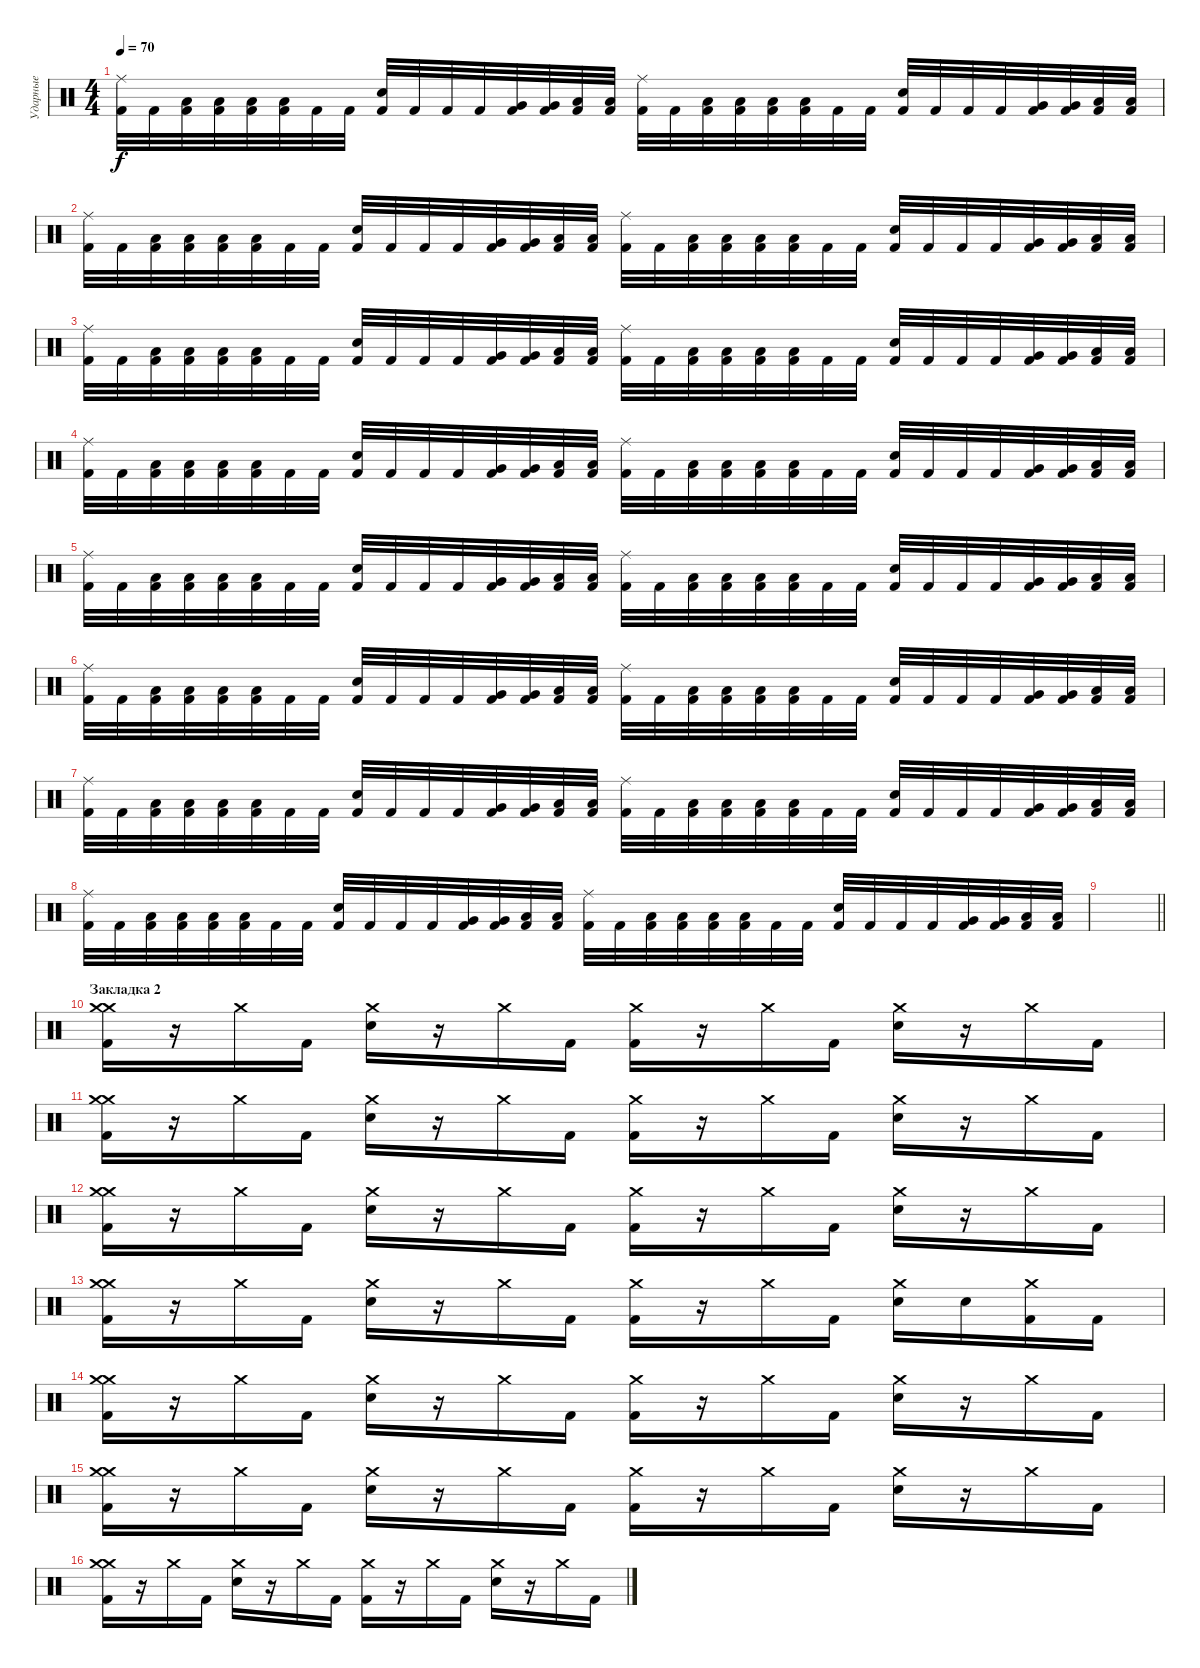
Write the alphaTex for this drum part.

\track ("Ударные" "Ударные") {instrument percussion}
\staff {score}
\articulation defaults
\ts (4 4)
\tempo 70
\clef neutral
\ks c
("Ride (middle)" "Kick (hit) 2").32{dy f} "Kick (hit) 2".32 ("Low Tom (hit)" "Kick (hit) 2").32 ("Low Tom (hit)" "Kick (hit) 2").32 ("Low Tom (hit)" "Kick (hit) 2").32 ("Low Tom (hit)" "Kick (hit) 2").32 "Kick (hit) 2".32 "Kick (hit) 2".32 ("Electric Snare (hit)" "Kick (hit) 2").32 "Kick (hit) 2".32 "Kick (hit) 2".32 "Kick (hit) 2".32 ("Very Low Tom (hit)" "Kick (hit) 2").32 ("Very Low Tom (hit)" "Kick (hit) 2").32 ("Low Floor Tom (hit)" "Kick (hit) 2").32 ("Low Floor Tom (hit)" "Kick (hit) 2").32 ("Ride (middle)" "Kick (hit) 2").32 "Kick (hit) 2".32 ("Low Tom (hit)" "Kick (hit) 2").32 ("Low Tom (hit)" "Kick (hit) 2").32 ("Low Tom (hit)" "Kick (hit) 2").32 ("Low Tom (hit)" "Kick (hit) 2").32 "Kick (hit) 2".32 "Kick (hit) 2".32 ("Electric Snare (hit)" "Kick (hit) 2").32 "Kick (hit) 2".32 "Kick (hit) 2".32 "Kick (hit) 2".32 ("Very Low Tom (hit)" "Kick (hit) 2").32 ("Very Low Tom (hit)" "Kick (hit) 2").32 ("Low Floor Tom (hit)" "Kick (hit) 2").32 ("Low Floor Tom (hit)" "Kick (hit) 2").32 |
("Ride (middle)" "Kick (hit) 2").32 "Kick (hit) 2".32 ("Low Tom (hit)" "Kick (hit) 2").32 ("Low Tom (hit)" "Kick (hit) 2").32 ("Low Tom (hit)" "Kick (hit) 2").32 ("Low Tom (hit)" "Kick (hit) 2").32 "Kick (hit) 2".32 "Kick (hit) 2".32 ("Electric Snare (hit)" "Kick (hit) 2").32 "Kick (hit) 2".32 "Kick (hit) 2".32 "Kick (hit) 2".32 ("Very Low Tom (hit)" "Kick (hit) 2").32 ("Very Low Tom (hit)" "Kick (hit) 2").32 ("Low Floor Tom (hit)" "Kick (hit) 2").32 ("Low Floor Tom (hit)" "Kick (hit) 2").32 ("Ride (middle)" "Kick (hit) 2").32 "Kick (hit) 2".32 ("Low Tom (hit)" "Kick (hit) 2").32 ("Low Tom (hit)" "Kick (hit) 2").32 ("Low Tom (hit)" "Kick (hit) 2").32 ("Low Tom (hit)" "Kick (hit) 2").32 "Kick (hit) 2".32 "Kick (hit) 2".32 ("Electric Snare (hit)" "Kick (hit) 2").32 "Kick (hit) 2".32 "Kick (hit) 2".32 "Kick (hit) 2".32 ("Very Low Tom (hit)" "Kick (hit) 2").32 ("Very Low Tom (hit)" "Kick (hit) 2").32 ("Low Floor Tom (hit)" "Kick (hit) 2").32 ("Low Floor Tom (hit)" "Kick (hit) 2").32 |
("Ride (middle)" "Kick (hit) 2").32 "Kick (hit) 2".32 ("Low Tom (hit)" "Kick (hit) 2").32 ("Low Tom (hit)" "Kick (hit) 2").32 ("Low Tom (hit)" "Kick (hit) 2").32 ("Low Tom (hit)" "Kick (hit) 2").32 "Kick (hit) 2".32 "Kick (hit) 2".32 ("Electric Snare (hit)" "Kick (hit) 2").32 "Kick (hit) 2".32 "Kick (hit) 2".32 "Kick (hit) 2".32 ("Very Low Tom (hit)" "Kick (hit) 2").32 ("Very Low Tom (hit)" "Kick (hit) 2").32 ("Low Floor Tom (hit)" "Kick (hit) 2").32 ("Low Floor Tom (hit)" "Kick (hit) 2").32 ("Ride (middle)" "Kick (hit) 2").32 "Kick (hit) 2".32 ("Low Tom (hit)" "Kick (hit) 2").32 ("Low Tom (hit)" "Kick (hit) 2").32 ("Low Tom (hit)" "Kick (hit) 2").32 ("Low Tom (hit)" "Kick (hit) 2").32 "Kick (hit) 2".32 "Kick (hit) 2".32 ("Electric Snare (hit)" "Kick (hit) 2").32 "Kick (hit) 2".32 "Kick (hit) 2".32 "Kick (hit) 2".32 ("Very Low Tom (hit)" "Kick (hit) 2").32 ("Very Low Tom (hit)" "Kick (hit) 2").32 ("Low Floor Tom (hit)" "Kick (hit) 2").32 ("Low Floor Tom (hit)" "Kick (hit) 2").32 |
("Ride (middle)" "Kick (hit) 2").32 "Kick (hit) 2".32 ("Low Tom (hit)" "Kick (hit) 2").32 ("Low Tom (hit)" "Kick (hit) 2").32 ("Low Tom (hit)" "Kick (hit) 2").32 ("Low Tom (hit)" "Kick (hit) 2").32 "Kick (hit) 2".32 "Kick (hit) 2".32 ("Electric Snare (hit)" "Kick (hit) 2").32 "Kick (hit) 2".32 "Kick (hit) 2".32 "Kick (hit) 2".32 ("Very Low Tom (hit)" "Kick (hit) 2").32 ("Very Low Tom (hit)" "Kick (hit) 2").32 ("Low Floor Tom (hit)" "Kick (hit) 2").32 ("Low Floor Tom (hit)" "Kick (hit) 2").32 ("Ride (middle)" "Kick (hit) 2").32 "Kick (hit) 2".32 ("Low Tom (hit)" "Kick (hit) 2").32 ("Low Tom (hit)" "Kick (hit) 2").32 ("Low Tom (hit)" "Kick (hit) 2").32 ("Low Tom (hit)" "Kick (hit) 2").32 "Kick (hit) 2".32 "Kick (hit) 2".32 ("Electric Snare (hit)" "Kick (hit) 2").32 "Kick (hit) 2".32 "Kick (hit) 2".32 "Kick (hit) 2".32 ("Very Low Tom (hit)" "Kick (hit) 2").32 ("Very Low Tom (hit)" "Kick (hit) 2").32 ("Low Floor Tom (hit)" "Kick (hit) 2").32 ("Low Floor Tom (hit)" "Kick (hit) 2").32 |
("Ride (middle)" "Kick (hit) 2").32 "Kick (hit) 2".32 ("Low Tom (hit)" "Kick (hit) 2").32 ("Low Tom (hit)" "Kick (hit) 2").32 ("Low Tom (hit)" "Kick (hit) 2").32 ("Low Tom (hit)" "Kick (hit) 2").32 "Kick (hit) 2".32 "Kick (hit) 2".32 ("Electric Snare (hit)" "Kick (hit) 2").32 "Kick (hit) 2".32 "Kick (hit) 2".32 "Kick (hit) 2".32 ("Very Low Tom (hit)" "Kick (hit) 2").32 ("Very Low Tom (hit)" "Kick (hit) 2").32 ("Low Floor Tom (hit)" "Kick (hit) 2").32 ("Low Floor Tom (hit)" "Kick (hit) 2").32 ("Ride (middle)" "Kick (hit) 2").32 "Kick (hit) 2".32 ("Low Tom (hit)" "Kick (hit) 2").32 ("Low Tom (hit)" "Kick (hit) 2").32 ("Low Tom (hit)" "Kick (hit) 2").32 ("Low Tom (hit)" "Kick (hit) 2").32 "Kick (hit) 2".32 "Kick (hit) 2".32 ("Electric Snare (hit)" "Kick (hit) 2").32 "Kick (hit) 2".32 "Kick (hit) 2".32 "Kick (hit) 2".32 ("Very Low Tom (hit)" "Kick (hit) 2").32 ("Very Low Tom (hit)" "Kick (hit) 2").32 ("Low Floor Tom (hit)" "Kick (hit) 2").32 ("Low Floor Tom (hit)" "Kick (hit) 2").32 |
("Ride (middle)" "Kick (hit) 2").32 "Kick (hit) 2".32 ("Low Tom (hit)" "Kick (hit) 2").32 ("Low Tom (hit)" "Kick (hit) 2").32 ("Low Tom (hit)" "Kick (hit) 2").32 ("Low Tom (hit)" "Kick (hit) 2").32 "Kick (hit) 2".32 "Kick (hit) 2".32 ("Electric Snare (hit)" "Kick (hit) 2").32 "Kick (hit) 2".32 "Kick (hit) 2".32 "Kick (hit) 2".32 ("Very Low Tom (hit)" "Kick (hit) 2").32 ("Very Low Tom (hit)" "Kick (hit) 2").32 ("Low Floor Tom (hit)" "Kick (hit) 2").32 ("Low Floor Tom (hit)" "Kick (hit) 2").32 ("Ride (middle)" "Kick (hit) 2").32 "Kick (hit) 2".32 ("Low Tom (hit)" "Kick (hit) 2").32 ("Low Tom (hit)" "Kick (hit) 2").32 ("Low Tom (hit)" "Kick (hit) 2").32 ("Low Tom (hit)" "Kick (hit) 2").32 "Kick (hit) 2".32 "Kick (hit) 2".32 ("Electric Snare (hit)" "Kick (hit) 2").32 "Kick (hit) 2".32 "Kick (hit) 2".32 "Kick (hit) 2".32 ("Very Low Tom (hit)" "Kick (hit) 2").32 ("Very Low Tom (hit)" "Kick (hit) 2").32 ("Low Floor Tom (hit)" "Kick (hit) 2").32 ("Low Floor Tom (hit)" "Kick (hit) 2").32 |
("Ride (middle)" "Kick (hit) 2").32 "Kick (hit) 2".32 ("Low Tom (hit)" "Kick (hit) 2").32 ("Low Tom (hit)" "Kick (hit) 2").32 ("Low Tom (hit)" "Kick (hit) 2").32 ("Low Tom (hit)" "Kick (hit) 2").32 "Kick (hit) 2".32 "Kick (hit) 2".32 ("Electric Snare (hit)" "Kick (hit) 2").32 "Kick (hit) 2".32 "Kick (hit) 2".32 "Kick (hit) 2".32 ("Very Low Tom (hit)" "Kick (hit) 2").32 ("Very Low Tom (hit)" "Kick (hit) 2").32 ("Low Floor Tom (hit)" "Kick (hit) 2").32 ("Low Floor Tom (hit)" "Kick (hit) 2").32 ("Ride (middle)" "Kick (hit) 2").32 "Kick (hit) 2".32 ("Low Tom (hit)" "Kick (hit) 2").32 ("Low Tom (hit)" "Kick (hit) 2").32 ("Low Tom (hit)" "Kick (hit) 2").32 ("Low Tom (hit)" "Kick (hit) 2").32 "Kick (hit) 2".32 "Kick (hit) 2".32 ("Electric Snare (hit)" "Kick (hit) 2").32 "Kick (hit) 2".32 "Kick (hit) 2".32 "Kick (hit) 2".32 ("Very Low Tom (hit)" "Kick (hit) 2").32 ("Very Low Tom (hit)" "Kick (hit) 2").32 ("Low Floor Tom (hit)" "Kick (hit) 2").32 ("Low Floor Tom (hit)" "Kick (hit) 2").32 |
("Ride (middle)" "Kick (hit) 2").32 "Kick (hit) 2".32 ("Low Tom (hit)" "Kick (hit) 2").32 ("Low Tom (hit)" "Kick (hit) 2").32 ("Low Tom (hit)" "Kick (hit) 2").32 ("Low Tom (hit)" "Kick (hit) 2").32 "Kick (hit) 2".32 "Kick (hit) 2".32 ("Electric Snare (hit)" "Kick (hit) 2").32 "Kick (hit) 2".32 "Kick (hit) 2".32 "Kick (hit) 2".32 ("Very Low Tom (hit)" "Kick (hit) 2").32 ("Very Low Tom (hit)" "Kick (hit) 2").32 ("Low Floor Tom (hit)" "Kick (hit) 2").32 ("Low Floor Tom (hit)" "Kick (hit) 2").32 ("Ride (middle)" "Kick (hit) 2").32 "Kick (hit) 2".32 ("Low Tom (hit)" "Kick (hit) 2").32 ("Low Tom (hit)" "Kick (hit) 2").32 ("Low Tom (hit)" "Kick (hit) 2").32 ("Low Tom (hit)" "Kick (hit) 2").32 "Kick (hit) 2".32 "Kick (hit) 2".32 ("Electric Snare (hit)" "Kick (hit) 2").32 "Kick (hit) 2".32 "Kick (hit) 2".32 "Kick (hit) 2".32 ("Very Low Tom (hit)" "Kick (hit) 2").32 ("Very Low Tom (hit)" "Kick (hit) 2").32 ("Low Floor Tom (hit)" "Kick (hit) 2").32 ("Low Floor Tom (hit)" "Kick (hit) 2").32 |
\barLineRight lightlight
|
\section ("" "Закладка 2")
("Crash medium (hit)" "Crash medium (hit)" "Kick (hit) 2").16{volume 16} r.16 "Crash medium (hit)".16 "Kick (hit) 2".16 ("Crash medium (hit)" "Electric Snare (hit)").16 r.16 "Crash medium (hit)".16 "Kick (hit) 2".16 ("Crash medium (hit)" "Kick (hit) 2").16 r.16 "Crash medium (hit)".16 "Kick (hit) 2".16 ("Crash medium (hit)" "Electric Snare (hit)").16 r.16 "Crash medium (hit)".16 "Kick (hit) 2".16 |
("Crash medium (hit)" "Crash medium (hit)" "Kick (hit) 2").16 r.16 "Crash medium (hit)".16 "Kick (hit) 2".16 ("Crash medium (hit)" "Electric Snare (hit)").16 r.16 "Crash medium (hit)".16 "Kick (hit) 2".16 ("Crash medium (hit)" "Kick (hit) 2").16 r.16 "Crash medium (hit)".16 "Kick (hit) 2".16 ("Crash medium (hit)" "Electric Snare (hit)").16 r.16 "Crash medium (hit)".16 "Kick (hit) 2".16 |
("Crash medium (hit)" "Crash medium (hit)" "Kick (hit) 2").16 r.16 "Crash medium (hit)".16 "Kick (hit) 2".16 ("Crash medium (hit)" "Electric Snare (hit)").16 r.16 "Crash medium (hit)".16 "Kick (hit) 2".16 ("Crash medium (hit)" "Kick (hit) 2").16 r.16 "Crash medium (hit)".16 "Kick (hit) 2".16 ("Crash medium (hit)" "Electric Snare (hit)").16 r.16 "Crash medium (hit)".16 "Kick (hit) 2".16 |
("Crash medium (hit)" "Crash medium (hit)" "Kick (hit) 2").16 r.16 "Crash medium (hit)".16 "Kick (hit) 2".16 ("Crash medium (hit)" "Electric Snare (hit)").16 r.16 "Crash medium (hit)".16 "Kick (hit) 2".16 ("Crash medium (hit)" "Kick (hit) 2").16 r.16 "Crash medium (hit)".16 "Kick (hit) 2".16 ("Crash medium (hit)" "Electric Snare (hit)").16 "Electric Snare (hit)".16 ("Crash medium (hit)" "Kick (hit) 2").16 "Kick (hit) 2".16 |
("Crash medium (hit)" "Crash medium (hit)" "Kick (hit) 2").16 r.16 "Crash medium (hit)".16 "Kick (hit) 2".16 ("Crash medium (hit)" "Electric Snare (hit)").16 r.16 "Crash medium (hit)".16 "Kick (hit) 2".16 ("Crash medium (hit)" "Kick (hit) 2").16 r.16 "Crash medium (hit)".16 "Kick (hit) 2".16 ("Crash medium (hit)" "Electric Snare (hit)").16 r.16 "Crash medium (hit)".16 "Kick (hit) 2".16 |
("Crash medium (hit)" "Crash medium (hit)" "Kick (hit) 2").16 r.16 "Crash medium (hit)".16 "Kick (hit) 2".16 ("Crash medium (hit)" "Electric Snare (hit)").16 r.16 "Crash medium (hit)".16 "Kick (hit) 2".16 ("Crash medium (hit)" "Kick (hit) 2").16 r.16 "Crash medium (hit)".16 "Kick (hit) 2".16 ("Crash medium (hit)" "Electric Snare (hit)").16 r.16 "Crash medium (hit)".16 "Kick (hit) 2".16 |
("Crash medium (hit)" "Crash medium (hit)" "Kick (hit) 2").16 r.16 "Crash medium (hit)".16 "Kick (hit) 2".16 ("Crash medium (hit)" "Electric Snare (hit)").16 r.16 "Crash medium (hit)".16 "Kick (hit) 2".16 ("Crash medium (hit)" "Kick (hit) 2").16 r.16 "Crash medium (hit)".16 "Kick (hit) 2".16 ("Crash medium (hit)" "Electric Snare (hit)").16 r.16 "Crash medium (hit)".16 "Kick (hit) 2".16
